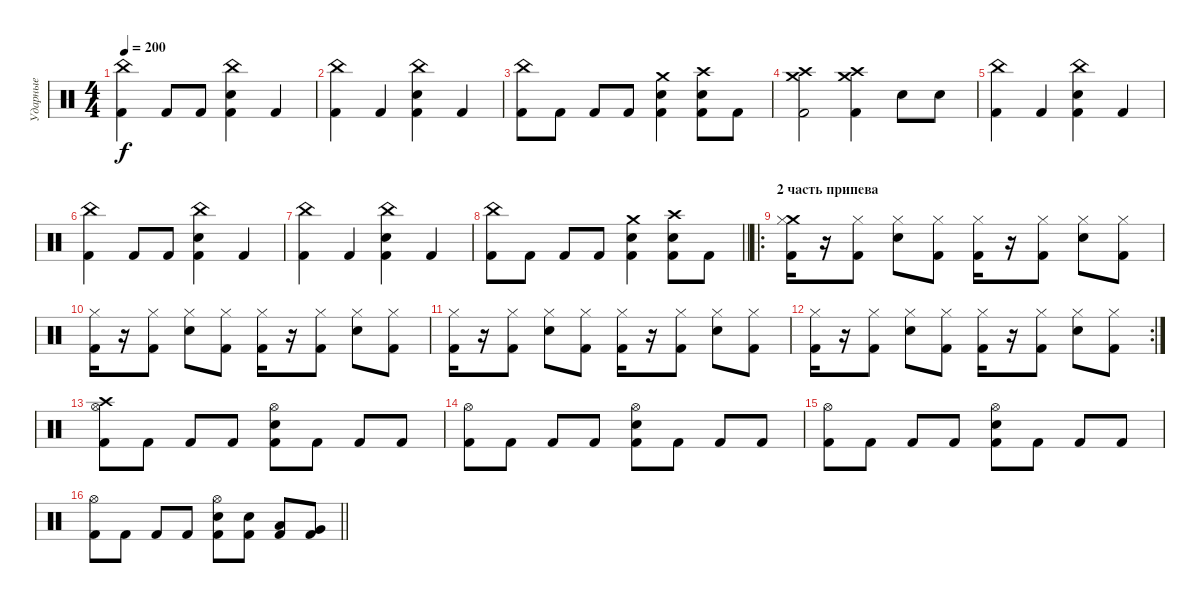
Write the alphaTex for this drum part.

\track ("Ударные" "Ударные") {instrument percussion}
\staff {score}
\articulation defaults
\ts (4 4)
\tempo 200
\clef neutral
\ks c
("China (hit)" "Kick (hit) 2").4{dy f} "Kick (hit) 2".8 "Kick (hit) 2".8 ("Snare (hit) 2" "China (hit)" "Kick (hit) 2").4 "Kick (hit) 2".4 |
("China (hit)" "Kick (hit) 2").4 "Kick (hit) 2".4 ("Snare (hit) 2" "China (hit)" "Kick (hit) 2").4 "Kick (hit) 2".4 |
("China (hit)" "Kick (hit) 2").8 "Kick (hit) 2".8 "Kick (hit) 2".8 "Kick (hit) 2".8 ("Snare (hit) 2" "Crash medium (hit)" "Kick (hit) 2").4 ("Snare (hit) 2" "Crash high (hit)" "Kick (hit) 2").8 "Kick (hit) 2".8 |
("Crash medium (hit)" "Crash high (hit)" "Kick (hit) 2").2 ("Crash high (hit)" "Crash medium (hit)" "Kick (hit) 2").4 "Snare (hit) 2".8 "Snare (hit) 2".8 |
("China (hit)" "Kick (hit) 2").4 "Kick (hit) 2".4 ("Snare (hit) 2" "China (hit)" "Kick (hit) 2").4 "Kick (hit) 2".4 |
("China (hit)" "Kick (hit) 2").4 "Kick (hit) 2".8 "Kick (hit) 2".8 ("Snare (hit) 2" "China (hit)" "Kick (hit) 2").4 "Kick (hit) 2".4 |
("China (hit)" "Kick (hit) 2").4 "Kick (hit) 2".4 ("Snare (hit) 2" "China (hit)" "Kick (hit) 2").4 "Kick (hit) 2".4 |
\barLineRight lightlight
("China (hit)" "Kick (hit) 2").8 "Kick (hit) 2".8 "Kick (hit) 2".8 "Kick (hit) 2".8 ("Snare (hit) 2" "Crash medium (hit)" "Kick (hit) 2").4 ("Snare (hit) 2" "Crash high (hit)" "Kick (hit) 2").8 "Kick (hit) 2".8 |
\ro
\section ("" "2 часть припева")
("Crash medium (hit)" "Hi-Hat (closed)" "Kick (hit) 2").16 r.16 ("Hi-Hat (closed)" "Kick (hit) 2").8 ("Snare (hit) 2" "Hi-Hat (closed)").8 ("Hi-Hat (closed)" "Kick (hit) 2").8 ("Hi-Hat (closed)" "Kick (hit) 2").16 r.16 ("Hi-Hat (closed)" "Kick (hit) 2").8 ("Snare (hit) 2" "Hi-Hat (closed)").8 ("Hi-Hat (closed)" "Kick (hit) 2").8 |
("Hi-Hat (closed)" "Kick (hit) 2").16 r.16 ("Hi-Hat (closed)" "Kick (hit) 2").8 ("Snare (hit) 2" "Hi-Hat (closed)").8 ("Hi-Hat (closed)" "Kick (hit) 2").8 ("Hi-Hat (closed)" "Kick (hit) 2").16 r.16 ("Hi-Hat (closed)" "Kick (hit) 2").8 ("Snare (hit) 2" "Hi-Hat (closed)").8 ("Hi-Hat (closed)" "Kick (hit) 2").8 |
("Hi-Hat (closed)" "Kick (hit) 2").16 r.16 ("Hi-Hat (closed)" "Kick (hit) 2").8 ("Snare (hit) 2" "Hi-Hat (closed)").8 ("Hi-Hat (closed)" "Kick (hit) 2").8 ("Hi-Hat (closed)" "Kick (hit) 2").16 r.16 ("Hi-Hat (closed)" "Kick (hit) 2").8 ("Snare (hit) 2" "Hi-Hat (closed)").8 ("Hi-Hat (closed)" "Kick (hit) 2").8 |
\rc 2
("Hi-Hat (closed)" "Kick (hit) 2").16 r.16 ("Hi-Hat (closed)" "Kick (hit) 2").8 ("Snare (hit) 2" "Hi-Hat (closed)").8 ("Hi-Hat (closed)" "Kick (hit) 2").8 ("Hi-Hat (closed)" "Kick (hit) 2").16 r.16 ("Hi-Hat (closed)" "Kick (hit) 2").8 ("Snare (hit) 2" "Hi-Hat (closed)").8 ("Hi-Hat (closed)" "Kick (hit) 2").8 |
("Crash high (hit)" "Hi-Hat (open)" "Kick (hit) 2").8 "Kick (hit) 2".8 "Kick (hit) 2".8 "Kick (hit) 2".8 ("Snare (hit) 2" "Hi-Hat (open)" "Kick (hit) 2").8 "Kick (hit) 2".8 "Kick (hit) 2".8 "Kick (hit) 2".8 |
("Hi-Hat (open)" "Kick (hit) 2").8 "Kick (hit) 2".8 "Kick (hit) 2".8 "Kick (hit) 2".8 ("Snare (hit) 2" "Hi-Hat (open)" "Kick (hit) 2").8 "Kick (hit) 2".8 "Kick (hit) 2".8 "Kick (hit) 2".8 |
("Hi-Hat (open)" "Kick (hit) 2").8 "Kick (hit) 2".8 "Kick (hit) 2".8 "Kick (hit) 2".8 ("Snare (hit) 2" "Hi-Hat (open)" "Kick (hit) 2").8 "Kick (hit) 2".8 "Kick (hit) 2".8 "Kick (hit) 2".8 |
\barLineRight lightlight
("Hi-Hat (open)" "Kick (hit) 2").8 "Kick (hit) 2".8 "Kick (hit) 2".8 "Kick (hit) 2".8 ("Snare (hit) 2" "Hi-Hat (open)" "Kick (hit) 2").8 ("Snare (hit) 2" "Kick (hit) 2").8 ("Low Tom (hit)" "Kick (hit) 2").8 ("Very Low Tom (hit)" "Kick (hit) 2").8
